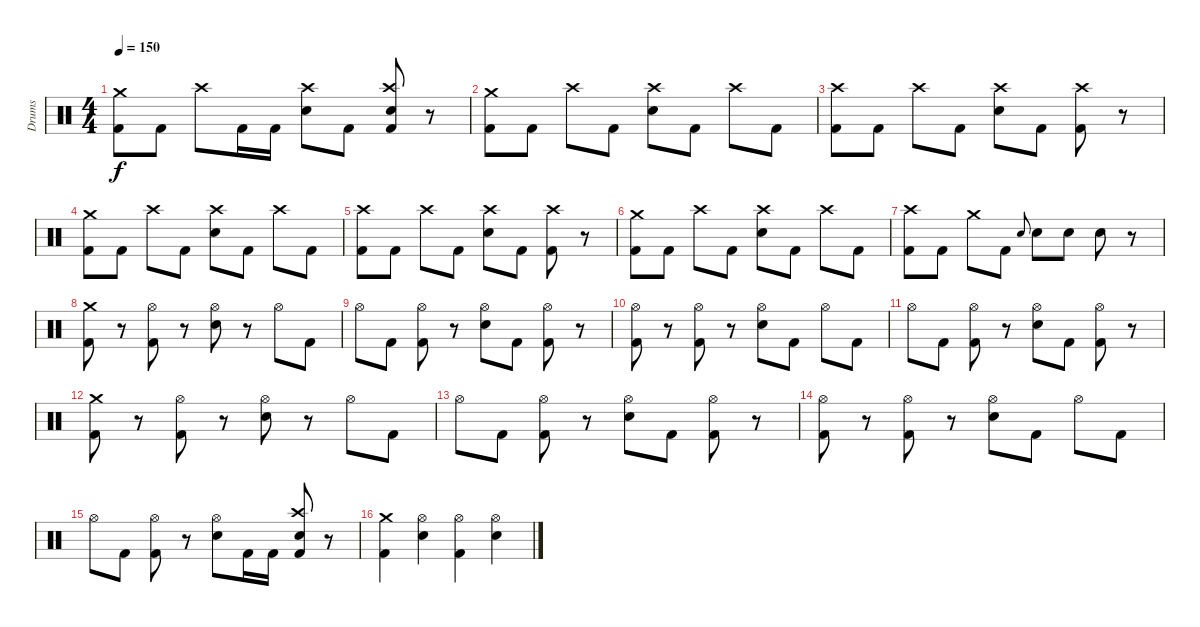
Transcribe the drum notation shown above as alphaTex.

\track ("Drums" "Drums") {instrument percussion}
\staff {score}
\articulation defaults
\ts (4 4)
\tempo 150
\clef neutral
\ks c
("Kick (hit) 2" "Crash medium (hit)").8{dy f} "Kick (hit) 2".8 "Crash high (hit)".8 "Kick (hit) 2".16 "Kick (hit) 2".16 ("Electric Snare (hit)" "Crash high (hit)").8 "Kick (hit) 2".8 ("Kick (hit) 2" "Electric Snare (hit)" "Crash high (hit)").8 r.8 |
("Kick (hit) 2" "Crash medium (hit)").8 "Kick (hit) 2".8 "Crash high (hit)".8 "Kick (hit) 2".8 ("Electric Snare (hit)" "Crash high (hit)").8 "Kick (hit) 2".8 "Crash high (hit)".8 "Kick (hit) 2".8 |
("Kick (hit) 2" "Crash high (hit)").8 "Kick (hit) 2".8 "Crash high (hit)".8 "Kick (hit) 2".8 ("Electric Snare (hit)" "Crash high (hit)").8 "Kick (hit) 2".8 ("Kick (hit) 2" "Crash high (hit)").8 r.8 |
("Kick (hit) 2" "Crash medium (hit)").8 "Kick (hit) 2".8 "Crash high (hit)".8 "Kick (hit) 2".8 ("Electric Snare (hit)" "Crash high (hit)").8 "Kick (hit) 2".8 "Crash high (hit)".8 "Kick (hit) 2".8 |
("Kick (hit) 2" "Crash high (hit)").8 "Kick (hit) 2".8 "Crash high (hit)".8 "Kick (hit) 2".8 ("Electric Snare (hit)" "Crash high (hit)").8 "Kick (hit) 2".8 ("Kick (hit) 2" "Crash high (hit)").8 r.8 |
("Kick (hit) 2" "Crash medium (hit)").8 "Kick (hit) 2".8 "Crash high (hit)".8 "Kick (hit) 2".8 ("Electric Snare (hit)" "Crash high (hit)").8 "Kick (hit) 2".8 "Crash high (hit)".8 "Kick (hit) 2".8 |
("Kick (hit) 2" "Crash high (hit)").8 "Kick (hit) 2".8 "Crash medium (hit)".8 "Kick (hit) 2".8 "Electric Snare (hit)".8{gr onbeat} "Electric Snare (hit)".8 "Electric Snare (hit)".8 "Electric Snare (hit)".8 r.8 |
("Kick (hit) 2" "Crash medium (hit)").8 r.8 ("Kick (hit) 2" "Hi-Hat (open)").8 r.8 ("Electric Snare (hit)" "Hi-Hat (open)").8 r.8 "Hi-Hat (open)".8 "Kick (hit) 2".8 |
"Hi-Hat (open)".8 "Kick (hit) 2".8 ("Kick (hit) 2" "Hi-Hat (open)").8 r.8 ("Electric Snare (hit)" "Hi-Hat (open)").8 "Kick (hit) 2".8 ("Kick (hit) 2" "Hi-Hat (open)").8 r.8 |
("Kick (hit) 2" "Hi-Hat (open)").8 r.8 ("Kick (hit) 2" "Hi-Hat (open)").8 r.8 ("Electric Snare (hit)" "Hi-Hat (open)").8 "Kick (hit) 2".8 "Hi-Hat (open)".8 "Kick (hit) 2".8 |
"Hi-Hat (open)".8 "Kick (hit) 2".8 ("Kick (hit) 2" "Hi-Hat (open)").8 r.8 ("Electric Snare (hit)" "Hi-Hat (open)").8 "Kick (hit) 2".8 ("Kick (hit) 2" "Hi-Hat (open)").8 r.8 |
("Kick (hit) 2" "Crash medium (hit)").8 r.8 ("Kick (hit) 2" "Hi-Hat (open)").8 r.8 ("Electric Snare (hit)" "Hi-Hat (open)").8 r.8 "Hi-Hat (open)".8 "Kick (hit) 2".8 |
"Hi-Hat (open)".8 "Kick (hit) 2".8 ("Kick (hit) 2" "Hi-Hat (open)").8 r.8 ("Electric Snare (hit)" "Hi-Hat (open)").8 "Kick (hit) 2".8 ("Kick (hit) 2" "Hi-Hat (open)").8 r.8 |
("Kick (hit) 2" "Hi-Hat (open)").8 r.8 ("Kick (hit) 2" "Hi-Hat (open)").8 r.8 ("Electric Snare (hit)" "Hi-Hat (open)").8 "Kick (hit) 2".8 "Hi-Hat (open)".8 "Kick (hit) 2".8 |
"Hi-Hat (open)".8 "Kick (hit) 2".8 ("Kick (hit) 2" "Hi-Hat (open)").8 r.8 ("Electric Snare (hit)" "Hi-Hat (open)").8 "Kick (hit) 2".16 "Kick (hit) 2".16 ("Kick (hit) 2" "Electric Snare (hit)" "Crash high (hit)").8 r.8 |
("Crash medium (hit)" "Kick (hit) 2").4 ("Hi-Hat (open)" "Electric Snare (hit)").4 ("Hi-Hat (open)" "Kick (hit) 2").4 ("Hi-Hat (open)" "Electric Snare (hit)").4
